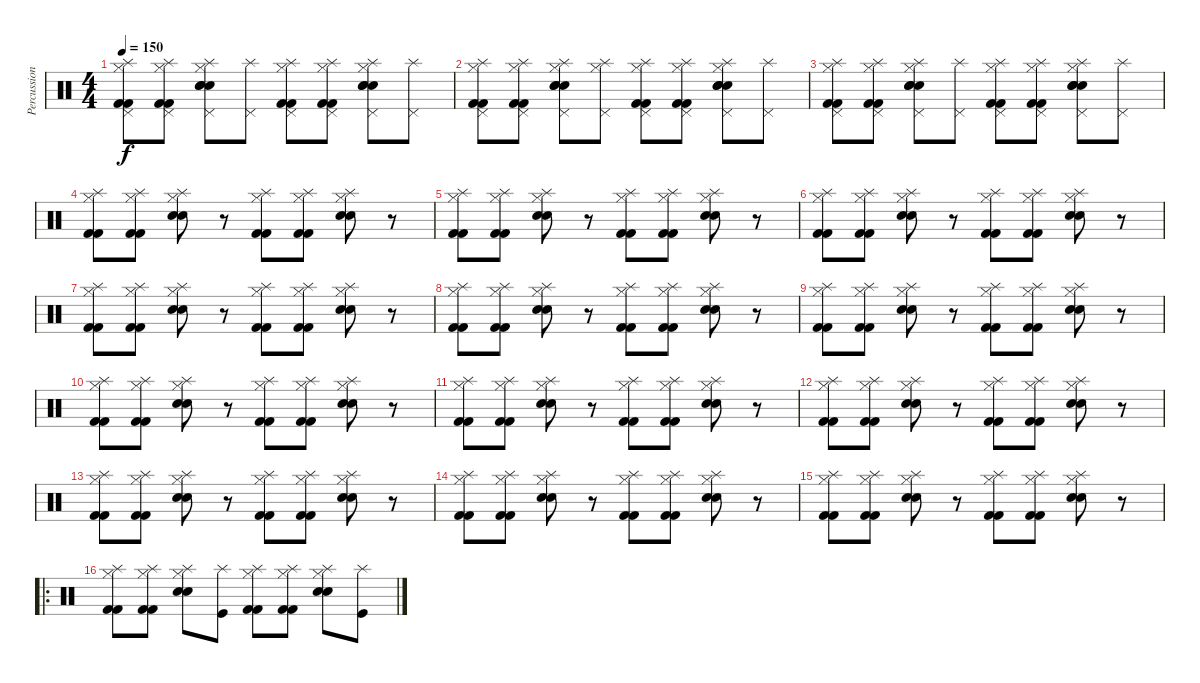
\track ("Percussion" "Percussion") {instrument percussion}
\staff {score}
\articulation defaults
\ts (4 4)
\tempo 150
\clef neutral
\ks c
("Pedal Hi-Hat (hit)" "Kick (hit) 2" "Splash (hit)" "Kick (hit) 2" "Hi-Hat (closed)").8{dy f} ("Pedal Hi-Hat (hit)" "Kick (hit) 2" "Splash (hit)" "Kick (hit) 2" "Hi-Hat (closed)").8 ("Hand Clap (hit)" "Pedal Hi-Hat (hit)" "Electric Snare (hit)" "Splash (hit)" "Electric Snare (hit)" "Hi-Hat (closed)").8 ("Pedal Hi-Hat (hit)" "Splash (hit)").8 ("Pedal Hi-Hat (hit)" "Kick (hit) 2" "Splash (hit)" "Kick (hit) 2" "Hi-Hat (closed)").8 ("Pedal Hi-Hat (hit)" "Kick (hit) 2" "Splash (hit)" "Kick (hit) 2" "Hi-Hat (closed)").8 ("Hand Clap (hit)" "Pedal Hi-Hat (hit)" "Electric Snare (hit)" "Splash (hit)" "Electric Snare (hit)" "Hi-Hat (closed)").8 ("Pedal Hi-Hat (hit)" "Splash (hit)").8 |
("Pedal Hi-Hat (hit)" "Kick (hit) 2" "Splash (hit)" "Kick (hit) 2" "Hi-Hat (closed)").8 ("Pedal Hi-Hat (hit)" "Kick (hit) 2" "Splash (hit)" "Kick (hit) 2" "Hi-Hat (closed)").8 ("Hand Clap (hit)" "Pedal Hi-Hat (hit)" "Electric Snare (hit)" "Splash (hit)" "Electric Snare (hit)" "Hi-Hat (closed)").8 ("Pedal Hi-Hat (hit)" "Splash (hit)" "Hi-Hat (closed)").8 ("Pedal Hi-Hat (hit)" "Kick (hit) 2" "Splash (hit)" "Kick (hit) 2" "Hi-Hat (closed)").8 ("Pedal Hi-Hat (hit)" "Kick (hit) 2" "Splash (hit)" "Kick (hit) 2" "Hi-Hat (closed)").8 ("Hand Clap (hit)" "Pedal Hi-Hat (hit)" "Electric Snare (hit)" "Splash (hit)" "Electric Snare (hit)" "Hi-Hat (closed)").8 ("Pedal Hi-Hat (hit)" "Splash (hit)").8 |
("Pedal Hi-Hat (hit)" "Kick (hit) 2" "Splash (hit)" "Kick (hit) 2" "Hi-Hat (closed)").8 ("Pedal Hi-Hat (hit)" "Kick (hit) 2" "Splash (hit)" "Kick (hit) 2" "Hi-Hat (closed)").8 ("Hand Clap (hit)" "Pedal Hi-Hat (hit)" "Electric Snare (hit)" "Splash (hit)" "Electric Snare (hit)" "Hi-Hat (closed)").8 ("Pedal Hi-Hat (hit)" "Splash (hit)").8 ("Pedal Hi-Hat (hit)" "Kick (hit) 2" "Splash (hit)" "Kick (hit) 2" "Hi-Hat (closed)").8 ("Pedal Hi-Hat (hit)" "Kick (hit) 2" "Splash (hit)" "Kick (hit) 2" "Hi-Hat (closed)").8 ("Hand Clap (hit)" "Pedal Hi-Hat (hit)" "Electric Snare (hit)" "Splash (hit)" "Electric Snare (hit)" "Hi-Hat (closed)").8 ("Pedal Hi-Hat (hit)" "Splash (hit)").8 |
("Splash (hit)" "Hi-Hat (closed)" "Kick (hit) 2" "Kick (hit) 2").8 ("Splash (hit)" "Hi-Hat (closed)" "Kick (hit) 2" "Kick (hit) 2").8 ("Splash (hit)" "Hi-Hat (closed)" "Electric Snare (hit)" "Electric Snare (hit)").8 r.8 ("Splash (hit)" "Hi-Hat (closed)" "Kick (hit) 2" "Kick (hit) 2").8 ("Splash (hit)" "Hi-Hat (closed)" "Kick (hit) 2" "Kick (hit) 2").8 ("Splash (hit)" "Hi-Hat (closed)" "Electric Snare (hit)" "Electric Snare (hit)").8 r.8 |
("Splash (hit)" "Hi-Hat (closed)" "Kick (hit) 2" "Kick (hit) 2").8 ("Splash (hit)" "Hi-Hat (closed)" "Kick (hit) 2" "Kick (hit) 2").8 ("Splash (hit)" "Hi-Hat (closed)" "Electric Snare (hit)" "Electric Snare (hit)").8 r.8 ("Splash (hit)" "Hi-Hat (closed)" "Kick (hit) 2" "Kick (hit) 2").8 ("Splash (hit)" "Hi-Hat (closed)" "Kick (hit) 2" "Kick (hit) 2").8 ("Splash (hit)" "Hi-Hat (closed)" "Electric Snare (hit)" "Electric Snare (hit)").8 r.8 |
("Splash (hit)" "Hi-Hat (closed)" "Kick (hit) 2" "Kick (hit) 2").8 ("Splash (hit)" "Hi-Hat (closed)" "Kick (hit) 2" "Kick (hit) 2").8 ("Splash (hit)" "Hi-Hat (closed)" "Electric Snare (hit)" "Electric Snare (hit)").8 r.8 ("Splash (hit)" "Hi-Hat (closed)" "Kick (hit) 2" "Kick (hit) 2").8 ("Splash (hit)" "Hi-Hat (closed)" "Kick (hit) 2" "Kick (hit) 2").8 ("Splash (hit)" "Hi-Hat (closed)" "Electric Snare (hit)" "Electric Snare (hit)").8 r.8 |
("Splash (hit)" "Hi-Hat (closed)" "Kick (hit) 2" "Kick (hit) 2").8 ("Splash (hit)" "Hi-Hat (closed)" "Kick (hit) 2" "Kick (hit) 2").8 ("Splash (hit)" "Hi-Hat (closed)" "Electric Snare (hit)" "Electric Snare (hit)").8 r.8 ("Splash (hit)" "Hi-Hat (closed)" "Kick (hit) 2" "Kick (hit) 2").8 ("Splash (hit)" "Hi-Hat (closed)" "Kick (hit) 2" "Kick (hit) 2").8 ("Splash (hit)" "Hi-Hat (closed)" "Electric Snare (hit)" "Electric Snare (hit)").8 r.8 |
("Splash (hit)" "Hi-Hat (closed)" "Kick (hit) 2" "Kick (hit) 2").8 ("Splash (hit)" "Hi-Hat (closed)" "Kick (hit) 2" "Kick (hit) 2").8 ("Splash (hit)" "Hi-Hat (closed)" "Electric Snare (hit)" "Electric Snare (hit)").8 r.8 ("Splash (hit)" "Hi-Hat (closed)" "Kick (hit) 2" "Kick (hit) 2").8 ("Splash (hit)" "Hi-Hat (closed)" "Kick (hit) 2" "Kick (hit) 2").8 ("Splash (hit)" "Hi-Hat (closed)" "Electric Snare (hit)" "Electric Snare (hit)").8 r.8 |
("Splash (hit)" "Hi-Hat (closed)" "Kick (hit) 2" "Kick (hit) 2").8 ("Splash (hit)" "Hi-Hat (closed)" "Kick (hit) 2" "Kick (hit) 2").8 ("Splash (hit)" "Hi-Hat (closed)" "Electric Snare (hit)" "Electric Snare (hit)").8 r.8 ("Splash (hit)" "Hi-Hat (closed)" "Kick (hit) 2" "Kick (hit) 2").8 ("Splash (hit)" "Hi-Hat (closed)" "Kick (hit) 2" "Kick (hit) 2").8 ("Splash (hit)" "Hi-Hat (closed)" "Electric Snare (hit)" "Electric Snare (hit)").8 r.8 |
("Splash (hit)" "Hi-Hat (closed)" "Kick (hit) 2" "Kick (hit) 2").8 ("Splash (hit)" "Hi-Hat (closed)" "Kick (hit) 2" "Kick (hit) 2").8 ("Splash (hit)" "Hi-Hat (closed)" "Electric Snare (hit)" "Electric Snare (hit)").8 r.8 ("Splash (hit)" "Hi-Hat (closed)" "Kick (hit) 2" "Kick (hit) 2").8 ("Splash (hit)" "Hi-Hat (closed)" "Kick (hit) 2" "Kick (hit) 2").8 ("Splash (hit)" "Hi-Hat (closed)" "Electric Snare (hit)" "Electric Snare (hit)").8 r.8 |
("Splash (hit)" "Hi-Hat (closed)" "Kick (hit) 2" "Kick (hit) 2").8 ("Splash (hit)" "Hi-Hat (closed)" "Kick (hit) 2" "Kick (hit) 2").8 ("Splash (hit)" "Hi-Hat (closed)" "Electric Snare (hit)" "Electric Snare (hit)").8 r.8 ("Splash (hit)" "Hi-Hat (closed)" "Kick (hit) 2" "Kick (hit) 2").8 ("Splash (hit)" "Hi-Hat (closed)" "Kick (hit) 2" "Kick (hit) 2").8 ("Splash (hit)" "Hi-Hat (closed)" "Electric Snare (hit)" "Electric Snare (hit)").8 r.8 |
("Splash (hit)" "Hi-Hat (closed)" "Kick (hit) 2" "Kick (hit) 2").8 ("Splash (hit)" "Hi-Hat (closed)" "Kick (hit) 2" "Kick (hit) 2").8 ("Splash (hit)" "Hi-Hat (closed)" "Electric Snare (hit)" "Electric Snare (hit)").8 r.8 ("Splash (hit)" "Hi-Hat (closed)" "Kick (hit) 2" "Kick (hit) 2").8 ("Splash (hit)" "Hi-Hat (closed)" "Kick (hit) 2" "Kick (hit) 2").8 ("Splash (hit)" "Hi-Hat (closed)" "Electric Snare (hit)" "Electric Snare (hit)").8 r.8 |
("Splash (hit)" "Hi-Hat (closed)" "Kick (hit) 2" "Kick (hit) 2").8 ("Splash (hit)" "Hi-Hat (closed)" "Kick (hit) 2" "Kick (hit) 2").8 ("Splash (hit)" "Hi-Hat (closed)" "Electric Snare (hit)" "Electric Snare (hit)").8 r.8 ("Splash (hit)" "Hi-Hat (closed)" "Kick (hit) 2" "Kick (hit) 2").8 ("Splash (hit)" "Hi-Hat (closed)" "Kick (hit) 2" "Kick (hit) 2").8 ("Splash (hit)" "Hi-Hat (closed)" "Electric Snare (hit)" "Electric Snare (hit)").8 r.8 |
("Splash (hit)" "Hi-Hat (closed)" "Kick (hit) 2" "Kick (hit) 2").8 ("Splash (hit)" "Hi-Hat (closed)" "Kick (hit) 2" "Kick (hit) 2").8 ("Splash (hit)" "Hi-Hat (closed)" "Electric Snare (hit)" "Electric Snare (hit)").8 r.8 ("Splash (hit)" "Hi-Hat (closed)" "Kick (hit) 2" "Kick (hit) 2").8 ("Splash (hit)" "Hi-Hat (closed)" "Kick (hit) 2" "Kick (hit) 2").8 ("Splash (hit)" "Hi-Hat (closed)" "Electric Snare (hit)" "Electric Snare (hit)").8 r.8 |
("Splash (hit)" "Hi-Hat (closed)" "Kick (hit) 2" "Kick (hit) 2").8 ("Splash (hit)" "Hi-Hat (closed)" "Kick (hit) 2" "Kick (hit) 2").8 ("Splash (hit)" "Hi-Hat (closed)" "Electric Snare (hit)" "Electric Snare (hit)").8 r.8 ("Splash (hit)" "Hi-Hat (closed)" "Kick (hit) 2" "Kick (hit) 2").8 ("Splash (hit)" "Hi-Hat (closed)" "Kick (hit) 2" "Kick (hit) 2").8 ("Splash (hit)" "Hi-Hat (closed)" "Electric Snare (hit)" "Electric Snare (hit)").8 r.8 |
\ro
("Splash (hit)" "Hi-Hat (closed)" "Kick (hit) 2" "Kick (hit) 2").8 ("Splash (hit)" "Hi-Hat (closed)" "Kick (hit) 2" "Kick (hit) 2").8 ("Splash (hit)" "Hi-Hat (closed)" "Electric Snare (hit)" "Electric Snare (hit)").8 ("Splash (hit)" "Kick (hit)").8 ("Splash (hit)" "Hi-Hat (closed)" "Kick (hit) 2" "Kick (hit) 2").8 ("Splash (hit)" "Hi-Hat (closed)" "Kick (hit) 2" "Kick (hit) 2").8 ("Splash (hit)" "Hi-Hat (closed)" "Electric Snare (hit)" "Electric Snare (hit)").8 ("Splash (hit)" "Kick (hit)").8
